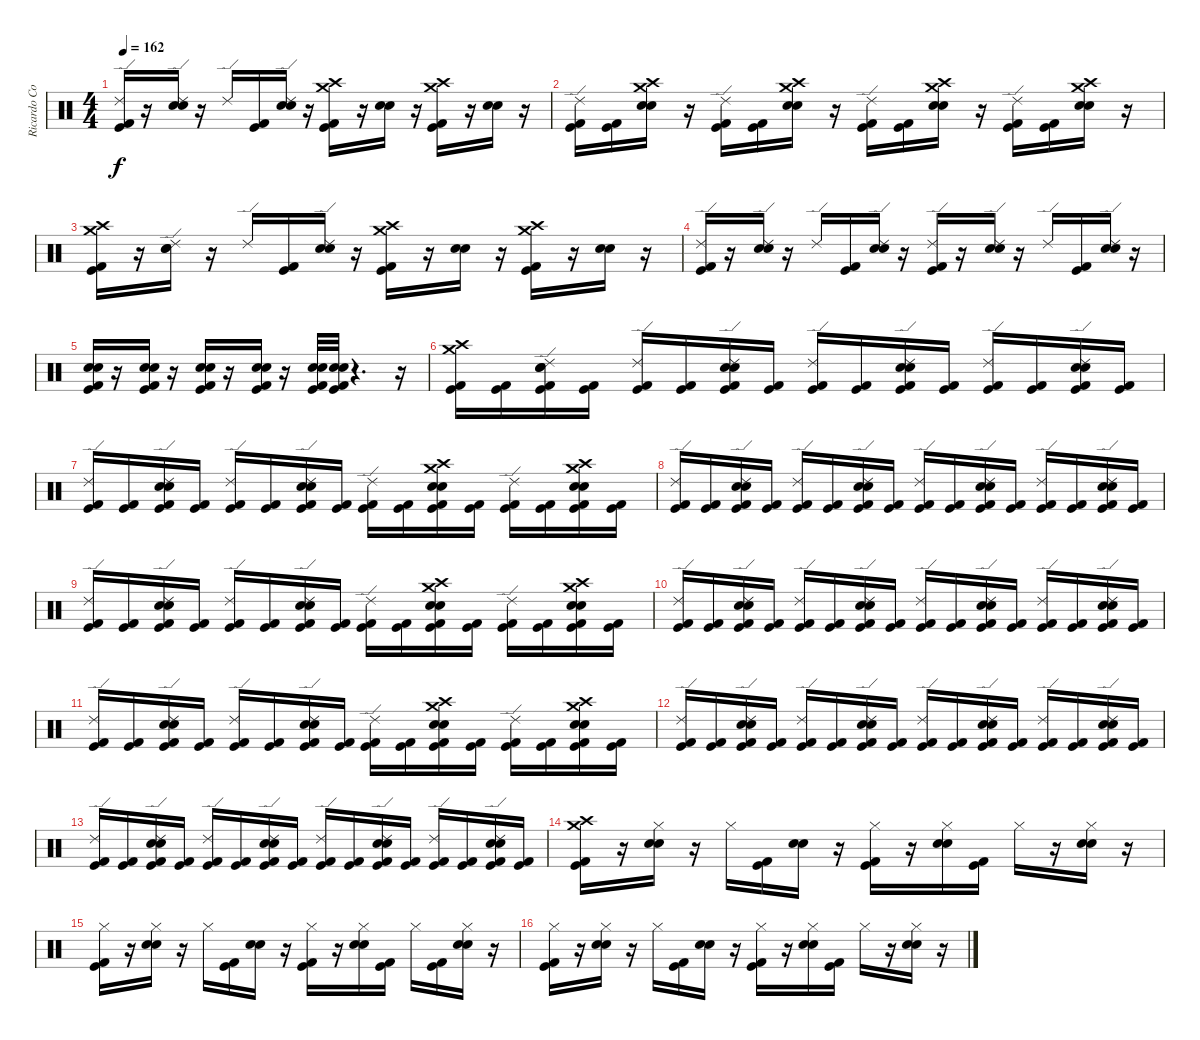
\track ("Ricardo Confessori" "Ricardo Co") {instrument percussion}
\staff {score}
\articulation defaults
\ts (4 4)
\tempo 162
\clef neutral
\ks c
("Ride (edge) 2" "Kick (hit) 2" "Kick (hit)").16{dy f} r.16 ("Ride (edge) 2" "Electric Snare (hit)" "Snare (hit) 2").16 r.16 "Ride (edge) 2".16 ("Kick (hit) 2" "Kick (hit)").16 ("Ride (edge) 2" "Electric Snare (hit)" "Snare (hit) 2").16 r.16 ("Crash high (hit)" "Crash medium (hit)" "Kick (hit) 2" "Kick (hit)").16 r.16 ("Electric Snare (hit)" "Snare (hit) 2").16 r.16 ("Crash high (hit)" "Crash medium (hit)" "Kick (hit)" "Kick (hit) 2").16 r.16 ("Electric Snare (hit)" "Snare (hit) 2").16 r.16 |
("Ride (edge) 2" "Kick (hit) 2" "Kick (hit)").16 ("Kick (hit) 2" "Kick (hit)").16 ("Crash high (hit)" "Crash medium (hit)" "Electric Snare (hit)" "Snare (hit) 2").16 r.16 ("Ride (edge) 2" "Kick (hit) 2" "Kick (hit)").16 ("Kick (hit) 2" "Kick (hit)").16 ("Crash high (hit)" "Crash medium (hit)" "Electric Snare (hit)" "Snare (hit) 2").16 r.16 ("Ride (edge) 2" "Kick (hit) 2" "Kick (hit)").16 ("Kick (hit) 2" "Kick (hit)").16 ("Crash high (hit)" "Crash medium (hit)" "Electric Snare (hit)" "Snare (hit) 2").16 r.16 ("Ride (edge) 2" "Kick (hit) 2" "Kick (hit)").16 ("Kick (hit) 2" "Kick (hit)").16 ("Crash medium (hit)" "Crash high (hit)" "Electric Snare (hit)" "Snare (hit) 2").16 r.16 |
("Crash medium (hit)" "Crash high (hit)" "Kick (hit) 2" "Kick (hit)").16 r.16 ("Ride (edge) 2" "Electric Snare (hit)" "Snare (hit) 2").16 r.16 "Ride (edge) 2".16 ("Kick (hit) 2" "Kick (hit)").16 ("Ride (edge) 2" "Electric Snare (hit)" "Snare (hit) 2").16 r.16 ("Crash high (hit)" "Crash medium (hit)" "Kick (hit) 2" "Kick (hit)").16 r.16 ("Electric Snare (hit)" "Snare (hit) 2").16 r.16 ("Crash high (hit)" "Crash medium (hit)" "Kick (hit) 2" "Kick (hit)").16 r.16 ("Electric Snare (hit)" "Snare (hit) 2").16 r.16 |
("Ride (edge) 2" "Kick (hit) 2" "Kick (hit)").16 r.16 ("Ride (edge) 2" "Electric Snare (hit)" "Snare (hit) 2").16 r.16 "Ride (edge) 2".16 ("Kick (hit)" "Kick (hit) 2").16 ("Ride (edge) 2" "Electric Snare (hit)" "Snare (hit) 2").16 r.16 ("Ride (edge) 2" "Kick (hit) 2" "Kick (hit)").16 r.16 ("Ride (edge) 2" "Electric Snare (hit)" "Snare (hit) 2").16 r.16 "Ride (edge) 2".16 ("Kick (hit)" "Kick (hit) 2").16 ("Ride (edge) 2" "Electric Snare (hit)" "Snare (hit) 2").16 r.16 |
("Electric Snare (hit)" "Snare (hit) 2" "Kick (hit) 2" "Kick (hit)").16 r.16 ("Electric Snare (hit)" "Snare (hit) 2" "Kick (hit) 2" "Kick (hit)").16 r.16 ("Electric Snare (hit)" "Snare (hit) 2" "Kick (hit) 2" "Kick (hit)").16 r.16 ("Electric Snare (hit)" "Snare (hit) 2" "Kick (hit) 2" "Kick (hit)").16 r.16 ("Kick (hit) 2" "Kick (hit)" "Electric Snare (hit)" "Snare (hit) 2").32 ("Kick (hit) 2" "Kick (hit)" "Electric Snare (hit)" "Snare (hit) 2").32 r.4{d} r.16 |
("Crash high (hit)" "Crash medium (hit)" "Kick (hit) 2" "Kick (hit)").16 ("Kick (hit) 2" "Kick (hit)").16 ("Ride (edge) 2" "Electric Snare (hit)" "Snare (hit) 2" "Kick (hit) 2" "Kick (hit)").16 ("Kick (hit) 2" "Kick (hit)").16 ("Ride (edge) 2" "Kick (hit) 2" "Kick (hit)").16 ("Kick (hit) 2" "Kick (hit)").16 ("Ride (edge) 2" "Electric Snare (hit)" "Snare (hit) 2" "Kick (hit) 2" "Kick (hit)").16 ("Kick (hit) 2" "Kick (hit)").16 ("Ride (edge) 2" "Kick (hit) 2" "Kick (hit)").16 ("Kick (hit) 2" "Kick (hit)").16 ("Ride (edge) 2" "Electric Snare (hit)" "Snare (hit) 2" "Kick (hit) 2" "Kick (hit)").16 ("Kick (hit) 2" "Kick (hit)").16 ("Ride (edge) 2" "Kick (hit) 2" "Kick (hit)").16 ("Kick (hit) 2" "Kick (hit)").16 ("Ride (edge) 2" "Electric Snare (hit)" "Snare (hit) 2" "Kick (hit) 2" "Kick (hit)").16 ("Kick (hit) 2" "Kick (hit)").16 |
("Ride (edge) 2" "Kick (hit) 2" "Kick (hit)").16 ("Kick (hit) 2" "Kick (hit)").16 ("Ride (edge) 2" "Electric Snare (hit)" "Snare (hit) 2" "Kick (hit) 2" "Kick (hit)").16 ("Kick (hit) 2" "Kick (hit)").16 ("Ride (edge) 2" "Kick (hit) 2" "Kick (hit)").16 ("Kick (hit) 2" "Kick (hit)").16 ("Ride (edge) 2" "Electric Snare (hit)" "Snare (hit) 2" "Kick (hit) 2" "Kick (hit)").16 ("Kick (hit) 2" "Kick (hit)").16 ("Ride (edge) 2" "Kick (hit) 2" "Kick (hit)").16 ("Kick (hit) 2" "Kick (hit)").16 ("Crash high (hit)" "Crash medium (hit)" "Electric Snare (hit)" "Snare (hit) 2" "Kick (hit) 2" "Kick (hit)").16 ("Kick (hit) 2" "Kick (hit)").16 ("Ride (edge) 2" "Kick (hit) 2" "Kick (hit)").16 ("Kick (hit) 2" "Kick (hit)").16 ("Crash high (hit)" "Crash medium (hit)" "Electric Snare (hit)" "Snare (hit) 2" "Kick (hit) 2" "Kick (hit)").16 ("Kick (hit) 2" "Kick (hit)").16 |
("Ride (edge) 2" "Kick (hit) 2" "Kick (hit)").16 ("Kick (hit) 2" "Kick (hit)").16 ("Ride (edge) 2" "Electric Snare (hit)" "Snare (hit) 2" "Kick (hit) 2" "Kick (hit)").16 ("Kick (hit) 2" "Kick (hit)").16 ("Ride (edge) 2" "Kick (hit) 2" "Kick (hit)").16 ("Kick (hit) 2" "Kick (hit)").16 ("Ride (edge) 2" "Electric Snare (hit)" "Snare (hit) 2" "Kick (hit) 2" "Kick (hit)").16 ("Kick (hit) 2" "Kick (hit)").16 ("Ride (edge) 2" "Kick (hit) 2" "Kick (hit)").16 ("Kick (hit) 2" "Kick (hit)").16 ("Ride (edge) 2" "Electric Snare (hit)" "Snare (hit) 2" "Kick (hit) 2" "Kick (hit)").16 ("Kick (hit) 2" "Kick (hit)").16 ("Ride (edge) 2" "Kick (hit) 2" "Kick (hit)").16 ("Kick (hit) 2" "Kick (hit)").16 ("Ride (edge) 2" "Electric Snare (hit)" "Snare (hit) 2" "Kick (hit) 2" "Kick (hit)").16 ("Kick (hit) 2" "Kick (hit)").16 |
("Ride (edge) 2" "Kick (hit) 2" "Kick (hit)").16 ("Kick (hit) 2" "Kick (hit)").16 ("Ride (edge) 2" "Electric Snare (hit)" "Snare (hit) 2" "Kick (hit) 2" "Kick (hit)").16 ("Kick (hit) 2" "Kick (hit)").16 ("Ride (edge) 2" "Kick (hit) 2" "Kick (hit)").16 ("Kick (hit) 2" "Kick (hit)").16 ("Ride (edge) 2" "Electric Snare (hit)" "Snare (hit) 2" "Kick (hit) 2" "Kick (hit)").16 ("Kick (hit) 2" "Kick (hit)").16 ("Ride (edge) 2" "Kick (hit) 2" "Kick (hit)").16 ("Kick (hit) 2" "Kick (hit)").16 ("Crash high (hit)" "Crash medium (hit)" "Electric Snare (hit)" "Snare (hit) 2" "Kick (hit) 2" "Kick (hit)").16 ("Kick (hit) 2" "Kick (hit)").16 ("Ride (edge) 2" "Kick (hit) 2" "Kick (hit)").16 ("Kick (hit) 2" "Kick (hit)").16 ("Crash high (hit)" "Crash medium (hit)" "Electric Snare (hit)" "Snare (hit) 2" "Kick (hit) 2" "Kick (hit)").16 ("Kick (hit) 2" "Kick (hit)").16 |
("Ride (edge) 2" "Kick (hit) 2" "Kick (hit)").16 ("Kick (hit) 2" "Kick (hit)").16 ("Ride (edge) 2" "Electric Snare (hit)" "Snare (hit) 2" "Kick (hit) 2" "Kick (hit)").16 ("Kick (hit) 2" "Kick (hit)").16 ("Ride (edge) 2" "Kick (hit) 2" "Kick (hit)").16 ("Kick (hit) 2" "Kick (hit)").16 ("Ride (edge) 2" "Electric Snare (hit)" "Snare (hit) 2" "Kick (hit) 2" "Kick (hit)").16 ("Kick (hit) 2" "Kick (hit)").16 ("Ride (edge) 2" "Kick (hit) 2" "Kick (hit)").16 ("Kick (hit) 2" "Kick (hit)").16 ("Ride (edge) 2" "Electric Snare (hit)" "Snare (hit) 2" "Kick (hit) 2" "Kick (hit)").16 ("Kick (hit) 2" "Kick (hit)").16 ("Ride (edge) 2" "Kick (hit) 2" "Kick (hit)").16 ("Kick (hit) 2" "Kick (hit)").16 ("Ride (edge) 2" "Electric Snare (hit)" "Snare (hit) 2" "Kick (hit) 2" "Kick (hit)").16 ("Kick (hit) 2" "Kick (hit)").16 |
("Ride (edge) 2" "Kick (hit) 2" "Kick (hit)").16 ("Kick (hit) 2" "Kick (hit)").16 ("Ride (edge) 2" "Electric Snare (hit)" "Snare (hit) 2" "Kick (hit) 2" "Kick (hit)").16 ("Kick (hit) 2" "Kick (hit)").16 ("Ride (edge) 2" "Kick (hit) 2" "Kick (hit)").16 ("Kick (hit) 2" "Kick (hit)").16 ("Ride (edge) 2" "Electric Snare (hit)" "Snare (hit) 2" "Kick (hit) 2" "Kick (hit)").16 ("Kick (hit) 2" "Kick (hit)").16 ("Ride (edge) 2" "Kick (hit) 2" "Kick (hit)").16 ("Kick (hit) 2" "Kick (hit)").16 ("Crash high (hit)" "Crash medium (hit)" "Electric Snare (hit)" "Snare (hit) 2" "Kick (hit) 2" "Kick (hit)").16 ("Kick (hit) 2" "Kick (hit)").16 ("Ride (edge) 2" "Kick (hit) 2" "Kick (hit)").16 ("Kick (hit) 2" "Kick (hit)").16 ("Crash high (hit)" "Crash medium (hit)" "Electric Snare (hit)" "Snare (hit) 2" "Kick (hit) 2" "Kick (hit)").16 ("Kick (hit) 2" "Kick (hit)").16 |
("Ride (edge) 2" "Kick (hit) 2" "Kick (hit)").16 ("Kick (hit) 2" "Kick (hit)").16 ("Ride (edge) 2" "Electric Snare (hit)" "Snare (hit) 2" "Kick (hit) 2" "Kick (hit)").16 ("Kick (hit) 2" "Kick (hit)").16 ("Ride (edge) 2" "Kick (hit) 2" "Kick (hit)").16 ("Kick (hit) 2" "Kick (hit)").16 ("Ride (edge) 2" "Electric Snare (hit)" "Snare (hit) 2" "Kick (hit) 2" "Kick (hit)").16 ("Kick (hit) 2" "Kick (hit)").16 ("Ride (edge) 2" "Kick (hit) 2" "Kick (hit)").16 ("Kick (hit) 2" "Kick (hit)").16 ("Ride (edge) 2" "Electric Snare (hit)" "Snare (hit) 2" "Kick (hit) 2" "Kick (hit)").16 ("Kick (hit) 2" "Kick (hit)").16 ("Ride (edge) 2" "Kick (hit) 2" "Kick (hit)").16 ("Kick (hit) 2" "Kick (hit)").16 ("Ride (edge) 2" "Electric Snare (hit)" "Snare (hit) 2" "Kick (hit) 2" "Kick (hit)").16 ("Kick (hit) 2" "Kick (hit)").16 |
("Ride (edge) 2" "Kick (hit) 2" "Kick (hit)").16 ("Kick (hit) 2" "Kick (hit)").16 ("Ride (edge) 2" "Electric Snare (hit)" "Snare (hit) 2" "Kick (hit) 2" "Kick (hit)").16 ("Kick (hit) 2" "Kick (hit)").16 ("Ride (edge) 2" "Kick (hit) 2" "Kick (hit)").16 ("Kick (hit) 2" "Kick (hit)").16 ("Ride (edge) 2" "Electric Snare (hit)" "Snare (hit) 2" "Kick (hit) 2" "Kick (hit)").16 ("Kick (hit) 2" "Kick (hit)").16 ("Ride (edge) 2" "Kick (hit) 2" "Kick (hit)").16 ("Kick (hit) 2" "Kick (hit)").16 ("Ride (edge) 2" "Electric Snare (hit)" "Snare (hit) 2" "Kick (hit) 2" "Kick (hit)").16 ("Kick (hit) 2" "Kick (hit)").16 ("Ride (edge) 2" "Kick (hit) 2" "Kick (hit)").16 ("Kick (hit) 2" "Kick (hit)").16 ("Ride (edge) 2" "Electric Snare (hit)" "Snare (hit) 2" "Kick (hit) 2" "Kick (hit)").16 ("Kick (hit) 2" "Kick (hit)").16 |
("Crash high (hit)" "Crash medium (hit)" "Kick (hit) 2" "Kick (hit)").16 r.16 ("Hi-Hat (closed)" "Electric Snare (hit)" "Snare (hit) 2").16 r.16 "Hi-Hat (closed)".16 ("Kick (hit) 2" "Kick (hit)").16 ("Electric Snare (hit)" "Snare (hit) 2").16 r.16 ("Hi-Hat (closed)" "Kick (hit) 2" "Kick (hit)").16 r.16 ("Hi-Hat (closed)" "Electric Snare (hit)" "Snare (hit) 2").16 ("Kick (hit) 2" "Kick (hit)").16 "Hi-Hat (closed)".16 r.16 ("Hi-Hat (closed)" "Electric Snare (hit)" "Snare (hit) 2").16 r.16 |
("Hi-Hat (closed)" "Kick (hit) 2" "Kick (hit)").16 r.16 ("Hi-Hat (closed)" "Electric Snare (hit)" "Snare (hit) 2").16 r.16 "Hi-Hat (closed)".16 ("Kick (hit) 2" "Kick (hit)").16 ("Electric Snare (hit)" "Snare (hit) 2").16 r.16 ("Hi-Hat (closed)" "Kick (hit) 2" "Kick (hit)").16 r.16 ("Hi-Hat (closed)" "Electric Snare (hit)" "Snare (hit) 2").16 ("Kick (hit) 2" "Kick (hit)").16 "Hi-Hat (closed)".16 ("Kick (hit) 2" "Kick (hit)").16 ("Hi-Hat (closed)" "Electric Snare (hit)" "Snare (hit) 2").16 r.16 |
("Hi-Hat (closed)" "Kick (hit) 2" "Kick (hit)").16 r.16 ("Hi-Hat (closed)" "Electric Snare (hit)" "Snare (hit) 2").16 r.16 "Hi-Hat (closed)".16 ("Kick (hit) 2" "Kick (hit)").16 ("Electric Snare (hit)" "Snare (hit) 2").16 r.16 ("Hi-Hat (closed)" "Kick (hit) 2" "Kick (hit)").16 r.16 ("Hi-Hat (closed)" "Electric Snare (hit)" "Snare (hit) 2").16 ("Kick (hit) 2" "Kick (hit)").16 "Hi-Hat (closed)".16 r.16 ("Hi-Hat (closed)" "Electric Snare (hit)" "Snare (hit) 2").16 r.16
